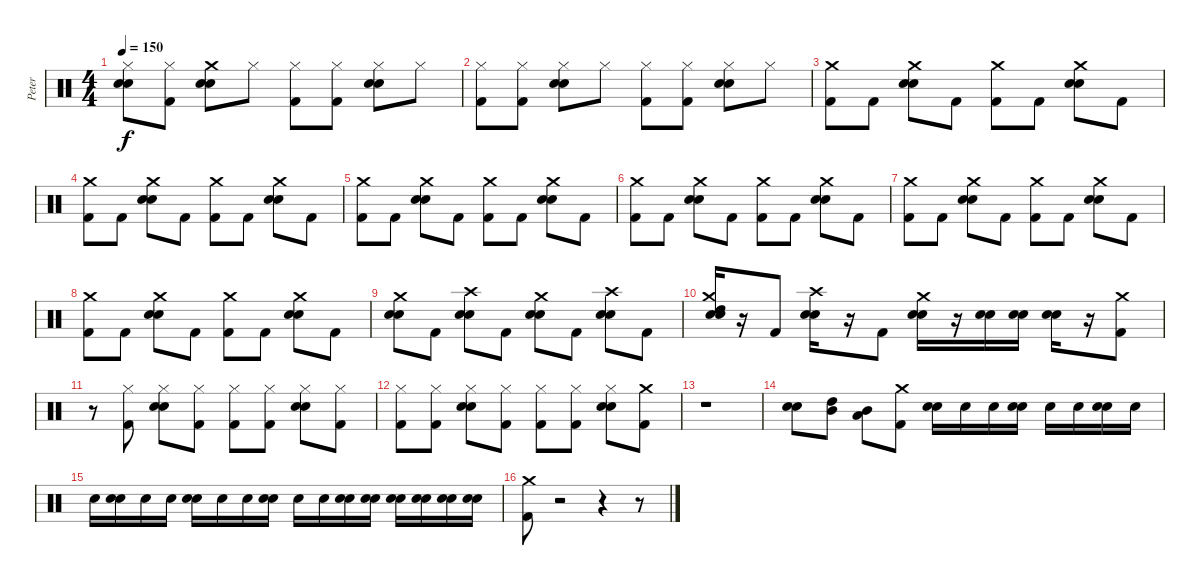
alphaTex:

\track ("Peter" "Peter") {instrument percussion}
\staff {score}
\articulation defaults
\ts (4 4)
\tempo 150
\clef neutral
\ks c
("Snare (hit) 2" "Electric Snare (hit)" "Hi-Hat (closed)").8{dy f} ("Hi-Hat (closed)" "Kick (hit) 2").8 ("Crash medium (hit)" "Snare (hit) 2" "Electric Snare (hit)").8 "Hi-Hat (closed)".8 ("Hi-Hat (closed)" "Kick (hit) 2").8 ("Hi-Hat (closed)" "Kick (hit) 2").8 ("Hi-Hat (closed)" "Snare (hit) 2" "Electric Snare (hit)").8 "Hi-Hat (closed)".8 |
("Kick (hit) 2" "Hi-Hat (closed)").8 ("Hi-Hat (closed)" "Kick (hit) 2").8 ("Hi-Hat (closed)" "Snare (hit) 2" "Electric Snare (hit)").8 "Hi-Hat (closed)".8 ("Hi-Hat (closed)" "Kick (hit) 2").8 ("Hi-Hat (closed)" "Kick (hit) 2").8 ("Hi-Hat (closed)" "Electric Snare (hit)" "Snare (hit) 2").8 "Hi-Hat (closed)".8 |
("Crash medium (hit)" "Kick (hit) 2").8 "Kick (hit) 2".8 ("Crash medium (hit)" "Snare (hit) 2" "Electric Snare (hit)").8 "Kick (hit) 2".8 ("Crash medium (hit)" "Kick (hit) 2").8 "Kick (hit) 2".8 ("Crash medium (hit)" "Electric Snare (hit)" "Snare (hit) 2").8 "Kick (hit) 2".8 |
("Crash medium (hit)" "Kick (hit) 2").8 "Kick (hit) 2".8 ("Crash medium (hit)" "Electric Snare (hit)" "Snare (hit) 2").8 "Kick (hit) 2".8 ("Crash medium (hit)" "Kick (hit) 2").8 "Kick (hit) 2".8 ("Crash medium (hit)" "Electric Snare (hit)" "Snare (hit) 2").8 "Kick (hit) 2".8 |
("Crash medium (hit)" "Kick (hit) 2").8 "Kick (hit) 2".8 ("Crash medium (hit)" "Snare (hit) 2" "Electric Snare (hit)").8 "Kick (hit) 2".8 ("Crash medium (hit)" "Kick (hit) 2").8 "Kick (hit) 2".8 ("Crash medium (hit)" "Electric Snare (hit)" "Snare (hit) 2").8 "Kick (hit) 2".8 |
("Crash medium (hit)" "Kick (hit) 2").8 "Kick (hit) 2".8 ("Crash medium (hit)" "Electric Snare (hit)" "Snare (hit) 2").8 "Kick (hit) 2".8 ("Crash medium (hit)" "Kick (hit) 2").8 "Kick (hit) 2".8 ("Crash medium (hit)" "Electric Snare (hit)" "Snare (hit) 2").8 "Kick (hit) 2".8 |
("Crash medium (hit)" "Kick (hit) 2").8 "Kick (hit) 2".8 ("Crash medium (hit)" "Snare (hit) 2" "Electric Snare (hit)").8 "Kick (hit) 2".8 ("Crash medium (hit)" "Kick (hit) 2").8 "Kick (hit) 2".8 ("Crash medium (hit)" "Electric Snare (hit)" "Snare (hit) 2").8 "Kick (hit) 2".8 |
("Crash medium (hit)" "Kick (hit) 2").8 "Kick (hit) 2".8 ("Crash medium (hit)" "Electric Snare (hit)" "Snare (hit) 2").8 "Kick (hit) 2".8 ("Crash medium (hit)" "Kick (hit) 2").8 "Kick (hit) 2".8 ("Crash medium (hit)" "Electric Snare (hit)" "Snare (hit) 2").8 "Kick (hit) 2".8 |
("Electric Snare (hit)" "Crash medium (hit)" "Snare (hit) 2").8 "Kick (hit) 2".8 ("Crash high (hit)" "Electric Snare (hit)" "Snare (hit) 2").8 "Kick (hit) 2".8 ("Crash medium (hit)" "Electric Snare (hit)" "Snare (hit) 2").8 "Kick (hit) 2".8 ("Crash high (hit)" "Electric Snare (hit)" "Snare (hit) 2").8 "Kick (hit) 2".8 |
("High Tom (hit)" "Crash medium (hit)" "Snare (hit) 2" "Electric Snare (hit)").16 r.16 "Kick (hit) 2".8 ("Crash high (hit)" "Snare (hit) 2" "Electric Snare (hit)").16 r.16 "Kick (hit) 2".8 ("Crash medium (hit)" "Snare (hit) 2" "Electric Snare (hit)").16 r.16 ("Snare (hit) 2" "Electric Snare (hit)").16 ("Snare (hit) 2" "Electric Snare (hit)").16 ("Snare (hit) 2" "Electric Snare (hit)").16 r.16 ("Crash medium (hit)" "Kick (hit) 2").8 |
r.8 ("Hi-Hat (closed)" "Kick (hit) 2").8 ("Hi-Hat (closed)" "Electric Snare (hit)" "Snare (hit) 2").8 ("Hi-Hat (closed)" "Kick (hit) 2").8 ("Hi-Hat (closed)" "Kick (hit) 2").8 ("Hi-Hat (closed)" "Kick (hit) 2").8 ("Hi-Hat (closed)" "Electric Snare (hit)" "Snare (hit) 2").8 ("Hi-Hat (closed)" "Kick (hit) 2").8 |
("Hi-Hat (closed)" "Kick (hit) 2").8 ("Hi-Hat (closed)" "Kick (hit) 2").8 ("Hi-Hat (closed)" "Electric Snare (hit)" "Snare (hit) 2").8 ("Hi-Hat (closed)" "Kick (hit) 2").8 ("Hi-Hat (closed)" "Kick (hit) 2").8 ("Hi-Hat (closed)" "Kick (hit) 2").8 ("Hi-Hat (closed)" "Snare (hit) 2" "Electric Snare (hit)").8 ("Crash medium (hit)" "Kick (hit) 2").8 |
r.1 |
("Electric Snare (hit)" "Snare (hit) 2").8 ("High Tom (hit)" "Mid Tom (hit)").8 ("Mid Tom (hit)" "Low Tom (hit)").8 ("Crash medium (hit)" "Kick (hit) 2").8 ("Snare (hit) 2" "Electric Snare (hit)").16 "Snare (hit) 2".16 "Snare (hit) 2".16 ("Snare (hit) 2" "Electric Snare (hit)").16 "Snare (hit) 2".16 "Snare (hit) 2".16 ("Snare (hit) 2" "Electric Snare (hit)").16 "Snare (hit) 2".16 |
"Snare (hit) 2".16 ("Snare (hit) 2" "Electric Snare (hit)").16 "Snare (hit) 2".16 "Snare (hit) 2".16 ("Electric Snare (hit)" "Snare (hit) 2").16 "Snare (hit) 2".16 "Snare (hit) 2".16 ("Snare (hit) 2" "Electric Snare (hit)").16 "Snare (hit) 2".16 "Snare (hit) 2".16 ("Electric Snare (hit)" "Snare (hit) 2").16 ("Electric Snare (hit)" "Snare (hit) 2").16 ("Electric Snare (hit)" "Snare (hit) 2").16 ("Electric Snare (hit)" "Snare (hit) 2").16 ("Electric Snare (hit)" "Snare (hit) 2").16 ("Electric Snare (hit)" "Snare (hit) 2").16 |
("Crash medium (hit)" "Kick (hit) 2").8 r.2 r.4 r.8
